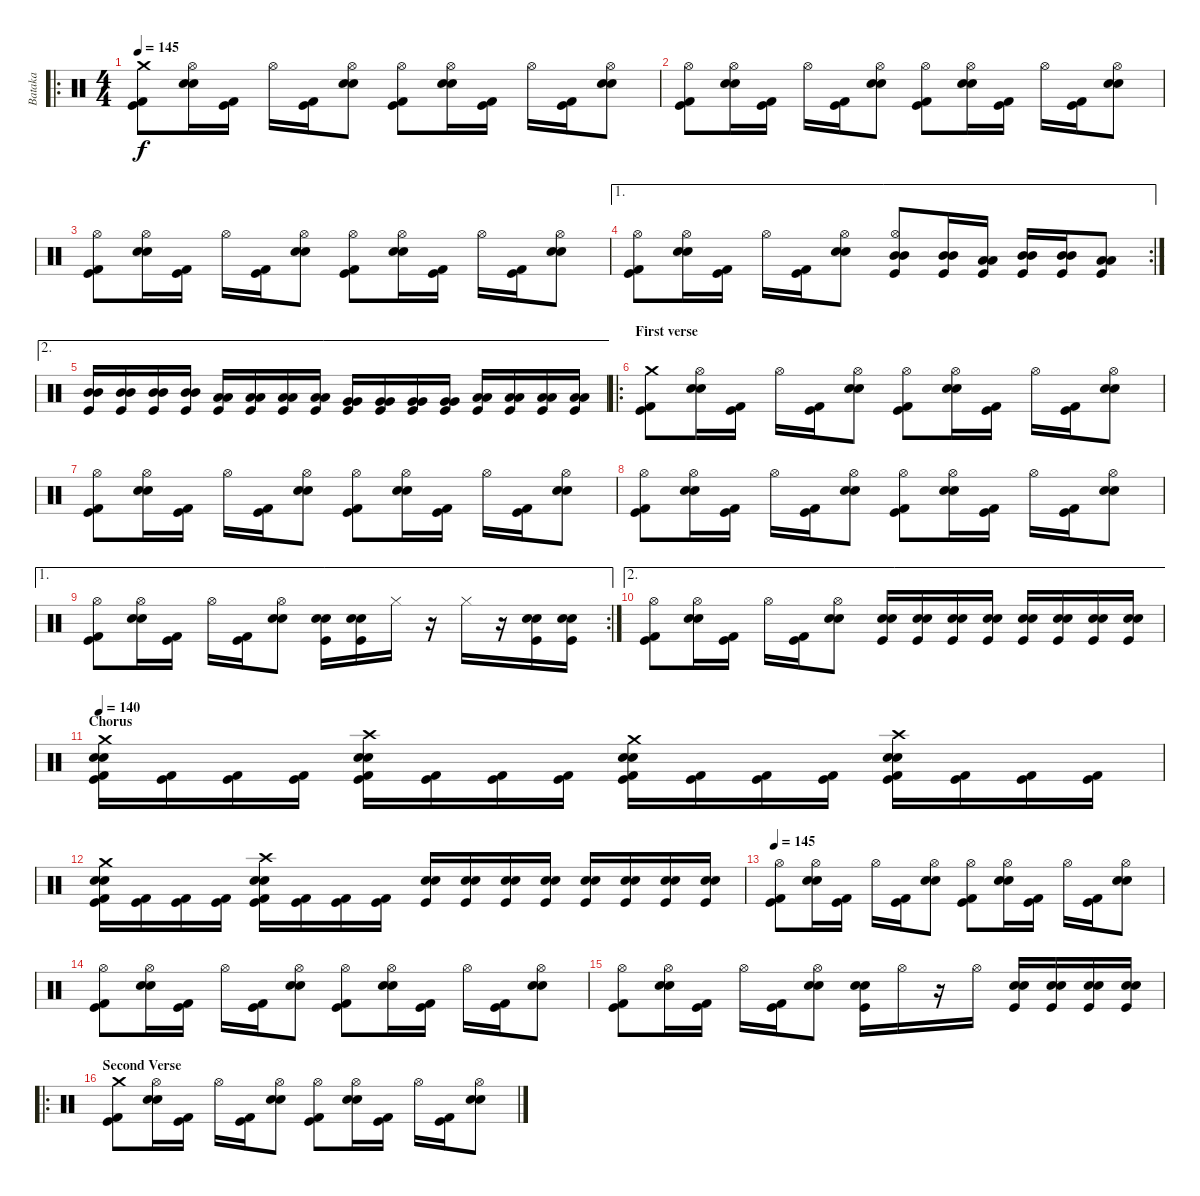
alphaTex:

\track ("Bataka" "Bataka") {instrument percussion}
\staff {score}
\articulation defaults
\ro
\ts (4 4)
\tempo 145
\clef neutral
\ks c
("Crash medium (hit)" "Kick (hit) 2" "Kick (hit)").8{dy f} ("Hi-Hat (open)" "Snare (hit) 2" "Snare (hit) 2").16 ("Kick (hit) 2" "Kick (hit)").16 "Hi-Hat (open)".16 ("Kick (hit) 2" "Kick (hit)").16 ("Hi-Hat (open)" "Snare (hit) 2" "Snare (hit) 2").8 ("Hi-Hat (open)" "Kick (hit) 2" "Kick (hit)").8 ("Hi-Hat (open)" "Snare (hit) 2" "Snare (hit) 2").16 ("Kick (hit) 2" "Kick (hit)").16 "Hi-Hat (open)".16 ("Kick (hit) 2" "Kick (hit)").16 ("Hi-Hat (open)" "Snare (hit) 2" "Snare (hit) 2").8 |
("Hi-Hat (open)" "Kick (hit) 2" "Kick (hit)").8 ("Hi-Hat (open)" "Snare (hit) 2" "Snare (hit) 2").16 ("Kick (hit) 2" "Kick (hit)").16 "Hi-Hat (open)".16 ("Kick (hit) 2" "Kick (hit)").16 ("Hi-Hat (open)" "Snare (hit) 2" "Snare (hit) 2").8 ("Hi-Hat (open)" "Kick (hit) 2" "Kick (hit)").8 ("Hi-Hat (open)" "Snare (hit) 2" "Snare (hit) 2").16 ("Kick (hit) 2" "Kick (hit)").16 "Hi-Hat (open)".16 ("Kick (hit) 2" "Kick (hit)").16 ("Hi-Hat (open)" "Snare (hit) 2" "Snare (hit) 2").8 |
("Hi-Hat (open)" "Kick (hit) 2" "Kick (hit)").8 ("Hi-Hat (open)" "Snare (hit) 2" "Snare (hit) 2").16 ("Kick (hit) 2" "Kick (hit)").16 "Hi-Hat (open)".16 ("Kick (hit) 2" "Kick (hit)").16 ("Hi-Hat (open)" "Snare (hit) 2" "Snare (hit) 2").8 ("Hi-Hat (open)" "Kick (hit) 2" "Kick (hit)").8 ("Hi-Hat (open)" "Snare (hit) 2" "Snare (hit) 2").16 ("Kick (hit) 2" "Kick (hit)").16 "Hi-Hat (open)".16 ("Kick (hit) 2" "Kick (hit)").16 ("Hi-Hat (open)" "Snare (hit) 2" "Snare (hit) 2").8 |
\ae 1
\rc 2
("Hi-Hat (open)" "Kick (hit) 2" "Kick (hit)").8 ("Hi-Hat (open)" "Snare (hit) 2" "Snare (hit) 2").16 ("Kick (hit) 2" "Kick (hit)").16 "Hi-Hat (open)".16 ("Kick (hit) 2" "Kick (hit)").16 ("Hi-Hat (open)" "Snare (hit) 2" "Snare (hit) 2").8 ("Hi-Hat (open)" "Mid Tom (hit)" "Mid Tom (hit)" "Kick (hit)").8 ("Mid Tom (hit)" "Mid Tom (hit)" "Kick (hit)").16 ("Low Tom (hit)" "Low Tom (hit)" "Kick (hit)").16 ("Mid Tom (hit)" "Mid Tom (hit)" "Kick (hit)").16 ("Mid Tom (hit)" "Mid Tom (hit)" "Kick (hit)").16 ("Low Tom (hit)" "Low Tom (hit)" "Kick (hit)").8 |
\ae 2
("Mid Tom (hit)" "Mid Tom (hit)" "Kick (hit)").16 ("Mid Tom (hit)" "Mid Tom (hit)" "Kick (hit)").16 ("Mid Tom (hit)" "Mid Tom (hit)" "Kick (hit)").16 ("Mid Tom (hit)" "Mid Tom (hit)" "Kick (hit)").16 ("Low Tom (hit)" "Low Tom (hit)" "Kick (hit)").16 ("Low Tom (hit)" "Low Tom (hit)" "Kick (hit)").16 ("Low Tom (hit)" "Low Tom (hit)" "Kick (hit)").16 ("Low Tom (hit)" "Low Tom (hit)" "Kick (hit)").16 ("Very Low Tom (hit)" "Very Low Tom (hit)" "Kick (hit)").16 ("Very Low Tom (hit)" "Very Low Tom (hit)" "Kick (hit)").16 ("Very Low Tom (hit)" "Very Low Tom (hit)" "Kick (hit)").16 ("Very Low Tom (hit)" "Very Low Tom (hit)" "Kick (hit)").16 ("Low Floor Tom (hit)" "Low Floor Tom (hit)" "Kick (hit)").16 ("Low Floor Tom (hit)" "Low Floor Tom (hit)" "Kick (hit)").16 ("Low Floor Tom (hit)" "Low Floor Tom (hit)" "Kick (hit)").16 ("Low Floor Tom (hit)" "Low Floor Tom (hit)" "Kick (hit)").16 |
\ro
\section ("" "First verse")
("Crash medium (hit)" "Kick (hit) 2" "Kick (hit)").8 ("Hi-Hat (open)" "Snare (hit) 2" "Snare (hit) 2").16 ("Kick (hit) 2" "Kick (hit)").16 "Hi-Hat (open)".16 ("Kick (hit) 2" "Kick (hit)").16 ("Hi-Hat (open)" "Snare (hit) 2" "Snare (hit) 2").8 ("Hi-Hat (open)" "Kick (hit) 2" "Kick (hit)").8 ("Hi-Hat (open)" "Snare (hit) 2" "Snare (hit) 2").16 ("Kick (hit) 2" "Kick (hit)").16 "Hi-Hat (open)".16 ("Kick (hit) 2" "Kick (hit)").16 ("Hi-Hat (open)" "Snare (hit) 2" "Snare (hit) 2").8 |
("Hi-Hat (open)" "Kick (hit) 2" "Kick (hit)").8 ("Hi-Hat (open)" "Snare (hit) 2" "Snare (hit) 2").16 ("Kick (hit) 2" "Kick (hit)").16 "Hi-Hat (open)".16 ("Kick (hit) 2" "Kick (hit)").16 ("Hi-Hat (open)" "Snare (hit) 2" "Snare (hit) 2").8 ("Hi-Hat (open)" "Kick (hit) 2" "Kick (hit)").8 ("Hi-Hat (open)" "Snare (hit) 2" "Snare (hit) 2").16 ("Kick (hit) 2" "Kick (hit)").16 "Hi-Hat (open)".16 ("Kick (hit) 2" "Kick (hit)").16 ("Hi-Hat (open)" "Snare (hit) 2" "Snare (hit) 2").8 |
("Hi-Hat (open)" "Kick (hit) 2" "Kick (hit)").8 ("Hi-Hat (open)" "Snare (hit) 2" "Snare (hit) 2").16 ("Kick (hit) 2" "Kick (hit)").16 "Hi-Hat (open)".16 ("Kick (hit) 2" "Kick (hit)").16 ("Hi-Hat (open)" "Snare (hit) 2" "Snare (hit) 2").8 ("Hi-Hat (open)" "Kick (hit) 2" "Kick (hit)").8 ("Hi-Hat (open)" "Snare (hit) 2" "Snare (hit) 2").16 ("Kick (hit) 2" "Kick (hit)").16 "Hi-Hat (open)".16 ("Kick (hit) 2" "Kick (hit)").16 ("Hi-Hat (open)" "Snare (hit) 2" "Snare (hit) 2").8 |
\ae 1
\rc 2
("Hi-Hat (open)" "Kick (hit) 2" "Kick (hit)").8 ("Hi-Hat (open)" "Snare (hit) 2" "Snare (hit) 2").16 ("Kick (hit) 2" "Kick (hit)").16 "Hi-Hat (open)".16 ("Kick (hit) 2" "Kick (hit)").16 ("Hi-Hat (open)" "Snare (hit) 2" "Snare (hit) 2").8 ("Snare (hit) 2" "Snare (hit) 2" "Kick (hit)").16 ("Snare (hit) 2" "Snare (hit) 2" "Kick (hit)").16 "Hi-Hat (closed)".16 r.16 "Hi-Hat (closed)".16 r.16 ("Snare (hit) 2" "Snare (hit) 2" "Kick (hit)").16 ("Snare (hit) 2" "Snare (hit) 2" "Kick (hit)").16 |
\ae 2
("Hi-Hat (open)" "Kick (hit) 2" "Kick (hit)").8 ("Hi-Hat (open)" "Snare (hit) 2" "Snare (hit) 2").16 ("Kick (hit) 2" "Kick (hit)").16 "Hi-Hat (open)".16 ("Kick (hit) 2" "Kick (hit)").16 ("Hi-Hat (open)" "Snare (hit) 2" "Snare (hit) 2").8 ("Snare (hit) 2" "Snare (hit) 2" "Kick (hit)").16 ("Snare (hit) 2" "Snare (hit) 2" "Kick (hit)").16 ("Snare (hit) 2" "Snare (hit) 2" "Kick (hit)").16 ("Snare (hit) 2" "Snare (hit) 2" "Kick (hit)").16 ("Snare (hit) 2" "Snare (hit) 2" "Kick (hit)").16 ("Snare (hit) 2" "Snare (hit) 2" "Kick (hit)").16 ("Snare (hit) 2" "Snare (hit) 2" "Kick (hit)").16 ("Snare (hit) 2" "Snare (hit) 2" "Kick (hit)").16 |
\section ("" "Chorus")
\tempo 140
("Crash medium (hit)" "Snare (hit) 2" "Snare (hit) 2" "Kick (hit) 2" "Kick (hit)").16 ("Kick (hit) 2" "Kick (hit)").16 ("Kick (hit) 2" "Kick (hit)").16 ("Kick (hit) 2" "Kick (hit)").16 ("Crash high (hit)" "Snare (hit) 2" "Snare (hit) 2" "Kick (hit) 2" "Kick (hit)").16 ("Kick (hit) 2" "Kick (hit)").16 ("Kick (hit) 2" "Kick (hit)").16 ("Kick (hit) 2" "Kick (hit)").16 ("Crash medium (hit)" "Snare (hit) 2" "Snare (hit) 2" "Kick (hit) 2" "Kick (hit)").16 ("Kick (hit) 2" "Kick (hit)").16 ("Kick (hit) 2" "Kick (hit)").16 ("Kick (hit) 2" "Kick (hit)").16 ("Crash high (hit)" "Snare (hit) 2" "Snare (hit) 2" "Kick (hit) 2" "Kick (hit)").16 ("Kick (hit) 2" "Kick (hit)").16 ("Kick (hit) 2" "Kick (hit)").16 ("Kick (hit) 2" "Kick (hit)").16 |
("Crash medium (hit)" "Snare (hit) 2" "Snare (hit) 2" "Kick (hit) 2" "Kick (hit)").16 ("Kick (hit) 2" "Kick (hit)").16 ("Kick (hit) 2" "Kick (hit)").16 ("Kick (hit) 2" "Kick (hit)").16 ("Crash high (hit)" "Snare (hit) 2" "Snare (hit) 2" "Kick (hit) 2" "Kick (hit)").16 ("Kick (hit) 2" "Kick (hit)").16 ("Kick (hit) 2" "Kick (hit)").16 ("Kick (hit) 2" "Kick (hit)").16 ("Snare (hit) 2" "Snare (hit) 2" "Kick (hit)").16 ("Snare (hit) 2" "Snare (hit) 2" "Kick (hit)").16 ("Snare (hit) 2" "Snare (hit) 2" "Kick (hit)").16 ("Snare (hit) 2" "Snare (hit) 2" "Kick (hit)").16 ("Snare (hit) 2" "Snare (hit) 2" "Kick (hit)").16 ("Snare (hit) 2" "Snare (hit) 2" "Kick (hit)").16 ("Snare (hit) 2" "Snare (hit) 2" "Kick (hit)").16 ("Snare (hit) 2" "Snare (hit) 2" "Kick (hit)").16 |
\tempo 145
("Hi-Hat (open)" "Kick (hit) 2" "Kick (hit)").8 ("Hi-Hat (open)" "Snare (hit) 2" "Snare (hit) 2").16 ("Kick (hit) 2" "Kick (hit)").16 "Hi-Hat (open)".16 ("Kick (hit) 2" "Kick (hit)").16 ("Hi-Hat (open)" "Snare (hit) 2" "Snare (hit) 2").8 ("Hi-Hat (open)" "Kick (hit) 2" "Kick (hit)").8 ("Hi-Hat (open)" "Snare (hit) 2" "Snare (hit) 2").16 ("Kick (hit) 2" "Kick (hit)").16 "Hi-Hat (open)".16 ("Kick (hit) 2" "Kick (hit)").16 ("Hi-Hat (open)" "Snare (hit) 2" "Snare (hit) 2").8 |
("Hi-Hat (open)" "Kick (hit) 2" "Kick (hit)").8 ("Hi-Hat (open)" "Snare (hit) 2" "Snare (hit) 2").16 ("Kick (hit) 2" "Kick (hit)").16 "Hi-Hat (open)".16 ("Kick (hit) 2" "Kick (hit)").16 ("Hi-Hat (open)" "Snare (hit) 2" "Snare (hit) 2").8 ("Hi-Hat (open)" "Kick (hit) 2" "Kick (hit)").8 ("Hi-Hat (open)" "Snare (hit) 2" "Snare (hit) 2").16 ("Kick (hit) 2" "Kick (hit)").16 "Hi-Hat (open)".16 ("Kick (hit) 2" "Kick (hit)").16 ("Hi-Hat (open)" "Snare (hit) 2" "Snare (hit) 2").8 |
("Hi-Hat (open)" "Kick (hit) 2" "Kick (hit)").8 ("Hi-Hat (open)" "Snare (hit) 2" "Snare (hit) 2").16 ("Kick (hit) 2" "Kick (hit)").16 "Hi-Hat (open)".16 ("Kick (hit) 2" "Kick (hit)").16 ("Hi-Hat (open)" "Snare (hit) 2" "Snare (hit) 2").8 ("Snare (hit) 2" "Snare (hit) 2" "Kick (hit)").16 "Hi-Hat (open)".16 r.16 "Hi-Hat (open)".16 ("Snare (hit) 2" "Snare (hit) 2" "Kick (hit)").16 ("Snare (hit) 2" "Snare (hit) 2" "Kick (hit)").16 ("Snare (hit) 2" "Snare (hit) 2" "Kick (hit)").16 ("Snare (hit) 2" "Snare (hit) 2" "Kick (hit)").16 |
\ro
\section ("" "Second Verse")
("Crash medium (hit)" "Kick (hit) 2" "Kick (hit)").8 ("Hi-Hat (open)" "Snare (hit) 2" "Snare (hit) 2").16 ("Kick (hit) 2" "Kick (hit)").16 "Hi-Hat (open)".16 ("Kick (hit) 2" "Kick (hit)").16 ("Hi-Hat (open)" "Snare (hit) 2" "Snare (hit) 2").8 ("Hi-Hat (open)" "Kick (hit) 2" "Kick (hit)").8 ("Hi-Hat (open)" "Snare (hit) 2" "Snare (hit) 2").16 ("Kick (hit) 2" "Kick (hit)").16 "Hi-Hat (open)".16 ("Kick (hit) 2" "Kick (hit)").16 ("Hi-Hat (open)" "Snare (hit) 2" "Snare (hit) 2").8
